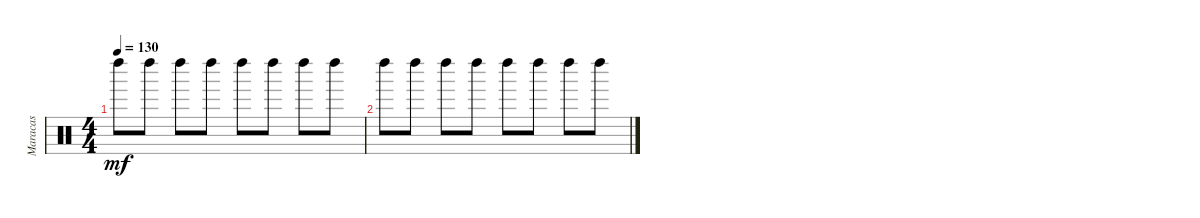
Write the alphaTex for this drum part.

\track ("Maracas" "Maracas") {instrument percussion}
\staff {score}
\articulation defaults
\ts (4 4)
\tempo 130
\clef neutral
\ks c "Left Maraca (hit)".8{dy mf} "Left Maraca (hit)".8 "Left Maraca (hit)".8 "Left Maraca (hit)".8 "Left Maraca (hit)".8 "Left Maraca (hit)".8 "Left Maraca (hit)".8 "Left Maraca (hit)".8
|
"Left Maraca (hit)".8 "Left Maraca (hit)".8 "Left Maraca (hit)".8 "Left Maraca (hit)".8 "Left Maraca (hit)".8 "Left Maraca (hit)".8 "Left Maraca (hit)".8 "Left Maraca (hit)".8
